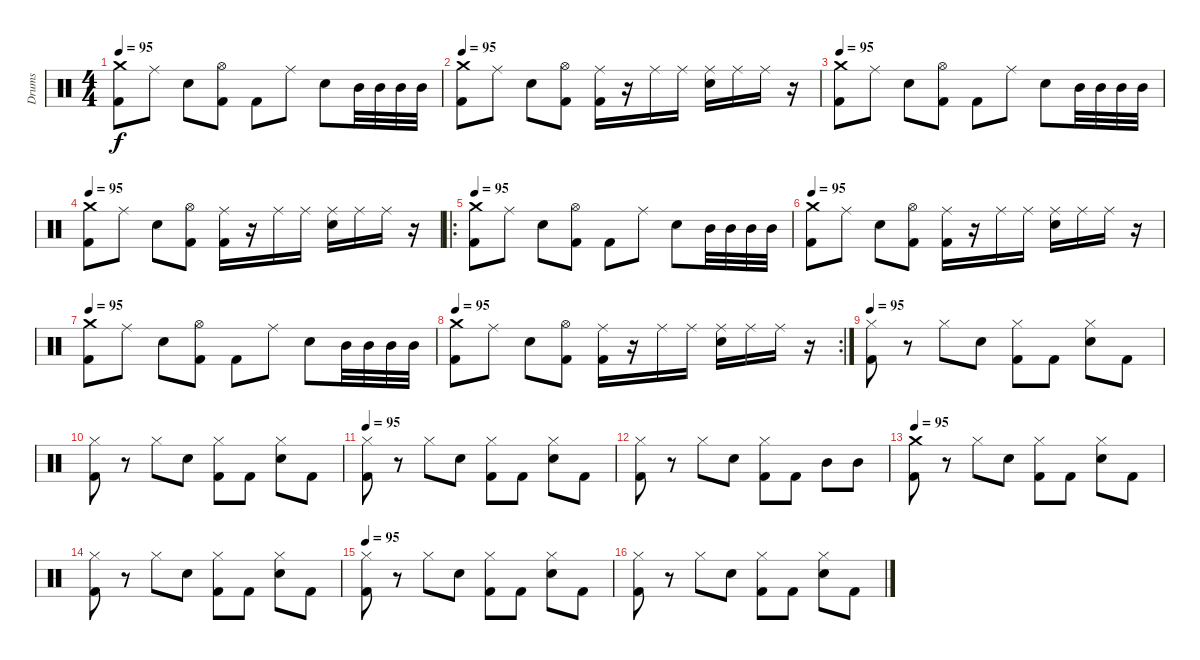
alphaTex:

\track ("Drums" "Drums") {instrument percussion}
\staff {score}
\articulation defaults
\ts (4 4)
\tempo 95
\clef neutral
\ks c
("Kick (hit) 2" "Crash medium (hit)").8{dy f} "Ride (middle)".8 "Electric Snare (hit)".8 ("Kick (hit) 2" "Hi-Hat (open)").8 "Kick (hit) 2".8 "Ride (middle)".8 "Electric Snare (hit)".8 "Mid Tom (hit)".32 "Mid Tom (hit)".32 "Mid Tom (hit)".32 "Mid Tom (hit)".32 |
\tempo 95
("Kick (hit) 2" "Crash medium (hit)").8 "Ride (middle)".8 "Electric Snare (hit)".8 ("Kick (hit) 2" "Hi-Hat (open)").8 ("Kick (hit) 2" "Ride (middle)").16 r.16 "Ride (middle)".16 "Ride (middle)".16 ("Ride (middle)" "Electric Snare (hit)").16 "Ride (middle)".16 "Ride (middle)".16 r.16 |
\tempo 95
("Kick (hit) 2" "Crash medium (hit)").8 "Ride (middle)".8 "Electric Snare (hit)".8 ("Kick (hit) 2" "Hi-Hat (open)").8 "Kick (hit) 2".8 "Ride (middle)".8 "Electric Snare (hit)".8 "Mid Tom (hit)".32 "Mid Tom (hit)".32 "Mid Tom (hit)".32 "Mid Tom (hit)".32 |
\tempo 95
("Kick (hit) 2" "Crash medium (hit)").8 "Ride (middle)".8 "Electric Snare (hit)".8 ("Kick (hit) 2" "Hi-Hat (open)").8 ("Kick (hit) 2" "Ride (middle)").16 r.16 "Ride (middle)".16 "Ride (middle)".16 ("Ride (middle)" "Electric Snare (hit)").16 "Ride (middle)".16 "Ride (middle)".16 r.16 |
\ro
\tempo 95
("Kick (hit) 2" "Crash medium (hit)").8 "Ride (middle)".8 "Electric Snare (hit)".8 ("Kick (hit) 2" "Hi-Hat (open)").8 "Kick (hit) 2".8 "Ride (middle)".8 "Electric Snare (hit)".8 "Mid Tom (hit)".32 "Mid Tom (hit)".32 "Mid Tom (hit)".32 "Mid Tom (hit)".32 |
\tempo 95
("Kick (hit) 2" "Crash medium (hit)").8 "Ride (middle)".8 "Electric Snare (hit)".8 ("Kick (hit) 2" "Hi-Hat (open)").8 ("Kick (hit) 2" "Ride (middle)").16 r.16 "Ride (middle)".16 "Ride (middle)".16 ("Ride (middle)" "Electric Snare (hit)").16 "Ride (middle)".16 "Ride (middle)".16 r.16 |
\tempo 95
("Kick (hit) 2" "Crash medium (hit)").8 "Ride (middle)".8 "Electric Snare (hit)".8 ("Kick (hit) 2" "Hi-Hat (open)").8 "Kick (hit) 2".8 "Ride (middle)".8 "Electric Snare (hit)".8 "Mid Tom (hit)".32 "Mid Tom (hit)".32 "Mid Tom (hit)".32 "Mid Tom (hit)".32 |
\rc 2
\tempo 95
("Kick (hit) 2" "Crash medium (hit)").8 "Ride (middle)".8 "Electric Snare (hit)".8 ("Kick (hit) 2" "Hi-Hat (open)").8 ("Kick (hit) 2" "Ride (middle)").16 r.16 "Ride (middle)".16 "Ride (middle)".16 ("Ride (middle)" "Electric Snare (hit)").16 "Ride (middle)".16 "Ride (middle)".16 r.16 |
\tempo 95
("Hi-Hat (closed)" "Kick (hit) 2").8 r.8 "Hi-Hat (closed)".8 "Electric Snare (hit)".8 ("Hi-Hat (closed)" "Kick (hit) 2").8 "Kick (hit) 2".8 ("Hi-Hat (closed)" "Electric Snare (hit)").8 "Kick (hit) 2".8 |
("Hi-Hat (closed)" "Kick (hit) 2").8 r.8 "Hi-Hat (closed)".8 "Electric Snare (hit)".8 ("Hi-Hat (closed)" "Kick (hit) 2").8 "Kick (hit) 2".8 ("Hi-Hat (closed)" "Electric Snare (hit)").8 "Kick (hit) 2".8 |
\tempo 95
("Hi-Hat (closed)" "Kick (hit) 2").8 r.8 "Hi-Hat (closed)".8 "Electric Snare (hit)".8 ("Hi-Hat (closed)" "Kick (hit) 2").8 "Kick (hit) 2".8 ("Hi-Hat (closed)" "Electric Snare (hit)").8 "Kick (hit) 2".8 |
("Hi-Hat (closed)" "Kick (hit) 2").8 r.8 "Hi-Hat (closed)".8 "Electric Snare (hit)".8 ("Hi-Hat (closed)" "Kick (hit) 2").8 "Kick (hit) 2".8 "Mid Tom (hit)".8 "Mid Tom (hit)".8 |
\tempo 95
("Crash medium (hit)" "Kick (hit) 2").8 r.8 "Hi-Hat (closed)".8 "Electric Snare (hit)".8 ("Hi-Hat (closed)" "Kick (hit) 2").8 "Kick (hit) 2".8 ("Hi-Hat (closed)" "Electric Snare (hit)").8 "Kick (hit) 2".8 |
("Hi-Hat (closed)" "Kick (hit) 2").8 r.8 "Hi-Hat (closed)".8 "Electric Snare (hit)".8 ("Hi-Hat (closed)" "Kick (hit) 2").8 "Kick (hit) 2".8 ("Hi-Hat (closed)" "Electric Snare (hit)").8 "Kick (hit) 2".8 |
\tempo 95
("Hi-Hat (closed)" "Kick (hit) 2").8 r.8 "Hi-Hat (closed)".8 "Electric Snare (hit)".8 ("Hi-Hat (closed)" "Kick (hit) 2").8 "Kick (hit) 2".8 ("Hi-Hat (closed)" "Electric Snare (hit)").8 "Kick (hit) 2".8 |
("Hi-Hat (closed)" "Kick (hit) 2").8 r.8 "Hi-Hat (closed)".8 "Electric Snare (hit)".8 ("Hi-Hat (closed)" "Kick (hit) 2").8 "Kick (hit) 2".8 ("Hi-Hat (closed)" "Electric Snare (hit)").8 "Kick (hit) 2".8
